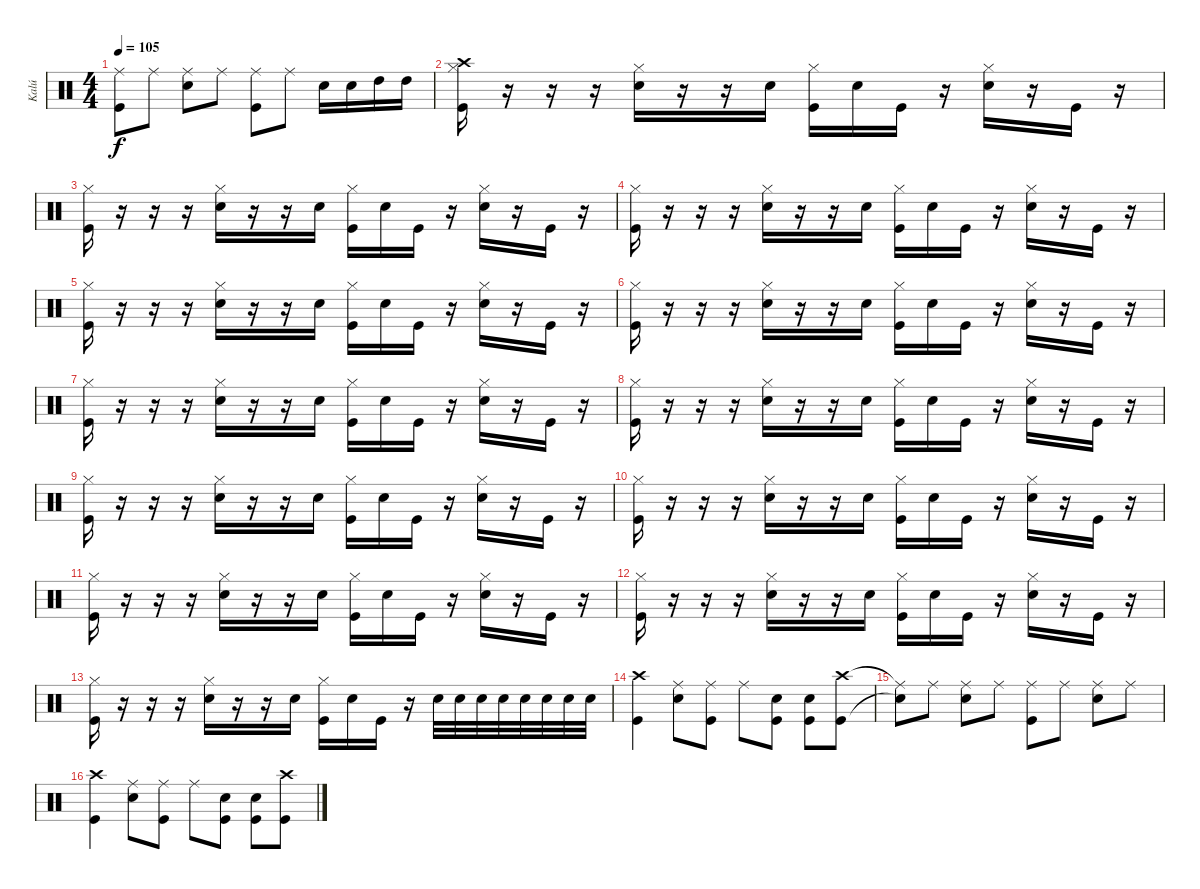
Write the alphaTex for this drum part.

\track ("Kalú" "Kalú") {instrument percussion}
\staff {score}
\articulation defaults
\ts (4 4)
\tempo 105
\clef neutral
\ks c
("Ride (middle)" "Kick (hit)").8{dy f} "Ride (middle)".8 ("Ride (middle)" "Electric Snare (hit)").8 "Ride (middle)".8 ("Ride (middle)" "Kick (hit)").8 "Ride (middle)".8 "Electric Snare (hit)".16 "Electric Snare (hit)".16 "High Tom (hit)".16 "High Tom (hit)".16 |
("Hi-Hat (closed)" "Kick (hit)" "Crash high (hit)").16 r.16 r.16 r.16 ("Hi-Hat (closed)" "Electric Snare (hit)").16 r.16 r.16 "Electric Snare (hit)".16 ("Hi-Hat (closed)" "Kick (hit)").16 "Electric Snare (hit)".16 "Kick (hit)".16 r.16 ("Hi-Hat (closed)" "Electric Snare (hit)").16 r.16 "Kick (hit)".16 r.16 |
("Hi-Hat (closed)" "Kick (hit)").16 r.16 r.16 r.16 ("Hi-Hat (closed)" "Electric Snare (hit)").16 r.16 r.16 "Electric Snare (hit)".16 ("Hi-Hat (closed)" "Kick (hit)").16 "Electric Snare (hit)".16 "Kick (hit)".16 r.16 ("Hi-Hat (closed)" "Electric Snare (hit)").16 r.16 "Kick (hit)".16 r.16 |
("Hi-Hat (closed)" "Kick (hit)").16 r.16 r.16 r.16 ("Hi-Hat (closed)" "Electric Snare (hit)").16 r.16 r.16 "Electric Snare (hit)".16 ("Hi-Hat (closed)" "Kick (hit)").16 "Electric Snare (hit)".16 "Kick (hit)".16 r.16 ("Hi-Hat (closed)" "Electric Snare (hit)").16 r.16 "Kick (hit)".16 r.16 |
("Hi-Hat (closed)" "Kick (hit)").16 r.16 r.16 r.16 ("Hi-Hat (closed)" "Electric Snare (hit)").16 r.16 r.16 "Electric Snare (hit)".16 ("Hi-Hat (closed)" "Kick (hit)").16 "Electric Snare (hit)".16 "Kick (hit)".16 r.16 ("Hi-Hat (closed)" "Electric Snare (hit)").16 r.16 "Kick (hit)".16 r.16 |
("Hi-Hat (closed)" "Kick (hit)").16 r.16 r.16 r.16 ("Hi-Hat (closed)" "Electric Snare (hit)").16 r.16 r.16 "Electric Snare (hit)".16 ("Hi-Hat (closed)" "Kick (hit)").16 "Electric Snare (hit)".16 "Kick (hit)".16 r.16 ("Hi-Hat (closed)" "Electric Snare (hit)").16 r.16 "Kick (hit)".16 r.16 |
("Hi-Hat (closed)" "Kick (hit)").16 r.16 r.16 r.16 ("Hi-Hat (closed)" "Electric Snare (hit)").16 r.16 r.16 "Electric Snare (hit)".16 ("Hi-Hat (closed)" "Kick (hit)").16 "Electric Snare (hit)".16 "Kick (hit)".16 r.16 ("Hi-Hat (closed)" "Electric Snare (hit)").16 r.16 "Kick (hit)".16 r.16 |
("Hi-Hat (closed)" "Kick (hit)").16 r.16 r.16 r.16 ("Hi-Hat (closed)" "Electric Snare (hit)").16 r.16 r.16 "Electric Snare (hit)".16 ("Hi-Hat (closed)" "Kick (hit)").16 "Electric Snare (hit)".16 "Kick (hit)".16 r.16 ("Hi-Hat (closed)" "Electric Snare (hit)").16 r.16 "Kick (hit)".16 r.16 |
("Hi-Hat (closed)" "Kick (hit)").16 r.16 r.16 r.16 ("Hi-Hat (closed)" "Electric Snare (hit)").16 r.16 r.16 "Electric Snare (hit)".16 ("Hi-Hat (closed)" "Kick (hit)").16 "Electric Snare (hit)".16 "Kick (hit)".16 r.16 ("Hi-Hat (closed)" "Electric Snare (hit)").16 r.16 "Kick (hit)".16 r.16 |
("Hi-Hat (closed)" "Kick (hit)").16 r.16 r.16 r.16 ("Hi-Hat (closed)" "Electric Snare (hit)").16 r.16 r.16 "Electric Snare (hit)".16 ("Hi-Hat (closed)" "Kick (hit)").16 "Electric Snare (hit)".16 "Kick (hit)".16 r.16 ("Hi-Hat (closed)" "Electric Snare (hit)").16 r.16 "Kick (hit)".16 r.16 |
("Hi-Hat (closed)" "Kick (hit)").16 r.16 r.16 r.16 ("Hi-Hat (closed)" "Electric Snare (hit)").16 r.16 r.16 "Electric Snare (hit)".16 ("Hi-Hat (closed)" "Kick (hit)").16 "Electric Snare (hit)".16 "Kick (hit)".16 r.16 ("Hi-Hat (closed)" "Electric Snare (hit)").16 r.16 "Kick (hit)".16 r.16 |
("Hi-Hat (closed)" "Kick (hit)").16 r.16 r.16 r.16 ("Hi-Hat (closed)" "Electric Snare (hit)").16 r.16 r.16 "Electric Snare (hit)".16 ("Hi-Hat (closed)" "Kick (hit)").16 "Electric Snare (hit)".16 "Kick (hit)".16 r.16 ("Hi-Hat (closed)" "Electric Snare (hit)").16 r.16 "Kick (hit)".16 r.16 |
("Hi-Hat (closed)" "Kick (hit)").16 r.16 r.16 r.16 ("Hi-Hat (closed)" "Electric Snare (hit)").16 r.16 r.16 "Electric Snare (hit)".16 ("Hi-Hat (closed)" "Kick (hit)").16 "Electric Snare (hit)".16 "Kick (hit)".16 r.16 "Electric Snare (hit)".32 "Electric Snare (hit)".32 "Electric Snare (hit)".32 "Electric Snare (hit)".32 "Electric Snare (hit)".32 "Electric Snare (hit)".32 "Electric Snare (hit)".32 "Electric Snare (hit)".32 |
("Crash high (hit)" "Kick (hit)").4 ("Ride (middle)" "Electric Snare (hit)").8 ("Ride (middle)" "Kick (hit)").8 "Ride (middle)".8 ("Kick (hit)" "Electric Snare (hit)").8 ("Kick (hit)" "Electric Snare (hit)").8 ("Crash high (hit)" "Kick (hit)").8 |
("Ride (middle)"{t} "Snare (hit)"{t}).8 "Ride (middle)".8 ("Ride (middle)" "Electric Snare (hit)").8 "Ride (middle)".8 ("Ride (middle)" "Kick (hit)").8 "Ride (middle)".8 ("Ride (middle)" "Electric Snare (hit)").8 "Ride (middle)".8 |
("Crash high (hit)" "Kick (hit)").4 ("Ride (middle)" "Electric Snare (hit)").8 ("Ride (middle)" "Kick (hit)").8 "Ride (middle)".8 ("Kick (hit)" "Electric Snare (hit)").8 ("Kick (hit)" "Electric Snare (hit)").8 ("Crash high (hit)" "Kick (hit)").8
